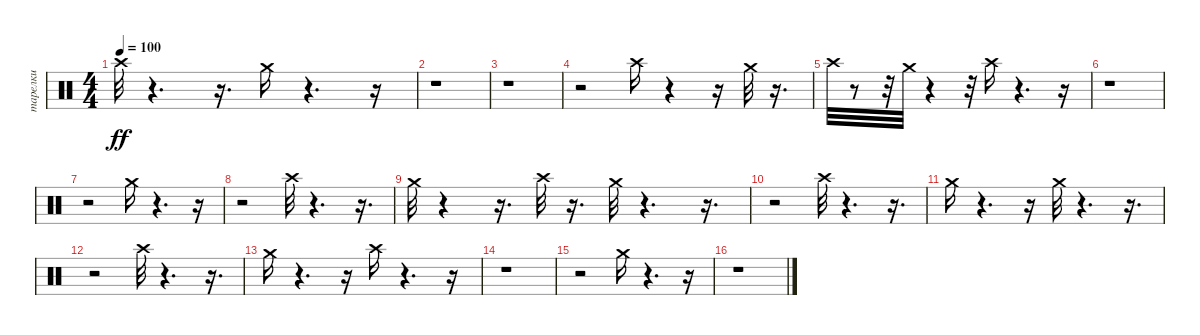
\track ("тарелки" "тарелки") {instrument percussion}
\staff {score}
\articulation defaults
\ts (4 4)
\tempo 100
\clef neutral
\ks c "Crash high (hit)".32{dy ff}
r.4{d} r.16{d} "Crash medium (hit)".16 r.4{d} r.16 |
r.1 |
r.1 |
r.2 "Crash high (hit)".16 r.4 r.16 "Crash medium (hit)".32 r.16{d} |
"Crash high (hit)".32 r.8 r.32 "Crash medium (hit)".32 r.4 r.32 "Crash high (hit)".16 r.4{d} r.16 |
r.1 |
r.2 "Crash medium (hit)".16 r.4{d} r.16 |
r.2 "Crash high (hit)".32 r.4{d} r.16{d} |
"Crash medium (hit)".32 r.4 r.16{d} "Crash high (hit)".32 r.16{d} "Crash medium (hit)".32 r.4{d} r.16{d} |
r.2 "Crash high (hit)".32 r.4{d} r.16{d} |
"Crash medium (hit)".16 r.4{d} r.16 "Crash medium (hit)".32 r.4{d} r.16{d} |
r.2 "Crash high (hit)".32 r.4{d} r.16{d} |
"Crash medium (hit)".16 r.4{d} r.16 "Crash high (hit)".16 r.4{d} r.16 |
r.1 |
r.2 "Crash medium (hit)".16 r.4{d} r.16 |
r.1
